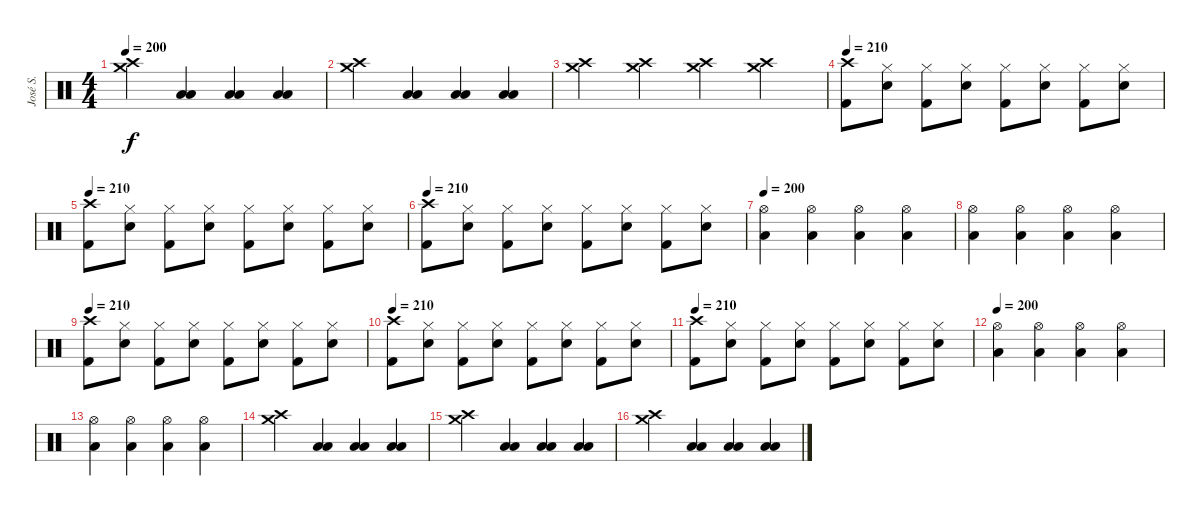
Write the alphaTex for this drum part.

\track ("José S." "José S.") {instrument percussion}
\staff {score}
\articulation defaults
\ts (4 4)
\tempo 200
\clef neutral
\ks c
("Crash high (hit)" "Crash medium (hit)").4{dy f} ("Low Tom (hit)" "Low Floor Tom (hit)").4 ("Low Tom (hit)" "Low Floor Tom (hit)").4 ("Low Tom (hit)" "Low Floor Tom (hit)").4 |
("Crash high (hit)" "Crash medium (hit)").4 ("Low Tom (hit)" "Low Floor Tom (hit)").4 ("Low Tom (hit)" "Low Floor Tom (hit)").4 ("Low Tom (hit)" "Low Floor Tom (hit)").4 |
("Crash medium (hit)" "Crash high (hit)").4 ("Crash medium (hit)" "Crash high (hit)").4 ("Crash medium (hit)" "Crash high (hit)").4 ("Crash medium (hit)" "Crash high (hit)").4 |
\tempo 210
("Crash high (hit)" "Kick (hit) 2").8 ("Hi-Hat (closed)" "Electric Snare (hit)").8 ("Hi-Hat (closed)" "Kick (hit) 2").8 ("Hi-Hat (closed)" "Electric Snare (hit)").8 ("Hi-Hat (closed)" "Kick (hit) 2").8 ("Hi-Hat (closed)" "Electric Snare (hit)").8 ("Hi-Hat (closed)" "Kick (hit) 2").8 ("Hi-Hat (closed)" "Electric Snare (hit)").8 |
\tempo 210
("Crash high (hit)" "Kick (hit) 2").8 ("Hi-Hat (closed)" "Electric Snare (hit)").8 ("Hi-Hat (closed)" "Kick (hit) 2").8 ("Hi-Hat (closed)" "Electric Snare (hit)").8 ("Hi-Hat (closed)" "Kick (hit) 2").8 ("Hi-Hat (closed)" "Electric Snare (hit)").8 ("Hi-Hat (closed)" "Kick (hit) 2").8 ("Hi-Hat (closed)" "Electric Snare (hit)").8 |
\tempo 210
("Crash high (hit)" "Kick (hit) 2").8 ("Hi-Hat (closed)" "Electric Snare (hit)").8 ("Hi-Hat (closed)" "Kick (hit) 2").8 ("Hi-Hat (closed)" "Electric Snare (hit)").8 ("Hi-Hat (closed)" "Kick (hit) 2").8 ("Hi-Hat (closed)" "Electric Snare (hit)").8 ("Hi-Hat (closed)" "Kick (hit) 2").8 ("Hi-Hat (closed)" "Electric Snare (hit)").8 |
\tempo 200
("Hi-Hat (open)" "Low Floor Tom (hit)").4 ("Hi-Hat (open)" "Low Floor Tom (hit)").4 ("Hi-Hat (open)" "Low Floor Tom (hit)").4 ("Hi-Hat (open)" "Low Floor Tom (hit)").4 |
("Hi-Hat (open)" "Low Floor Tom (hit)").4 ("Hi-Hat (open)" "Low Floor Tom (hit)").4 ("Hi-Hat (open)" "Low Floor Tom (hit)").4 ("Hi-Hat (open)" "Low Floor Tom (hit)").4 |
\tempo 210
("Crash high (hit)" "Kick (hit) 2").8 ("Hi-Hat (closed)" "Electric Snare (hit)").8 ("Hi-Hat (closed)" "Kick (hit) 2").8 ("Hi-Hat (closed)" "Electric Snare (hit)").8 ("Hi-Hat (closed)" "Kick (hit) 2").8 ("Hi-Hat (closed)" "Electric Snare (hit)").8 ("Hi-Hat (closed)" "Kick (hit) 2").8 ("Hi-Hat (closed)" "Electric Snare (hit)").8 |
\tempo 210
("Crash high (hit)" "Kick (hit) 2").8 ("Hi-Hat (closed)" "Electric Snare (hit)").8 ("Hi-Hat (closed)" "Kick (hit) 2").8 ("Hi-Hat (closed)" "Electric Snare (hit)").8 ("Hi-Hat (closed)" "Kick (hit) 2").8 ("Hi-Hat (closed)" "Electric Snare (hit)").8 ("Hi-Hat (closed)" "Kick (hit) 2").8 ("Hi-Hat (closed)" "Electric Snare (hit)").8 |
\tempo 210
("Crash high (hit)" "Kick (hit) 2").8 ("Hi-Hat (closed)" "Electric Snare (hit)").8 ("Hi-Hat (closed)" "Kick (hit) 2").8 ("Hi-Hat (closed)" "Electric Snare (hit)").8 ("Hi-Hat (closed)" "Kick (hit) 2").8 ("Hi-Hat (closed)" "Electric Snare (hit)").8 ("Hi-Hat (closed)" "Kick (hit) 2").8 ("Hi-Hat (closed)" "Electric Snare (hit)").8 |
\tempo 200
("Hi-Hat (open)" "Low Floor Tom (hit)").4 ("Hi-Hat (open)" "Low Floor Tom (hit)").4 ("Hi-Hat (open)" "Low Floor Tom (hit)").4 ("Hi-Hat (open)" "Low Floor Tom (hit)").4 |
("Hi-Hat (open)" "Low Floor Tom (hit)").4 ("Hi-Hat (open)" "Low Floor Tom (hit)").4 ("Hi-Hat (open)" "Low Floor Tom (hit)").4 ("Hi-Hat (open)" "Low Floor Tom (hit)").4 |
("Crash high (hit)" "Crash medium (hit)").4 ("Low Tom (hit)" "Low Floor Tom (hit)").4 ("Low Tom (hit)" "Low Floor Tom (hit)").4 ("Low Tom (hit)" "Low Floor Tom (hit)").4 |
("Crash high (hit)" "Crash medium (hit)").4 ("Low Tom (hit)" "Low Floor Tom (hit)").4 ("Low Tom (hit)" "Low Floor Tom (hit)").4 ("Low Tom (hit)" "Low Floor Tom (hit)").4 |
("Crash high (hit)" "Crash medium (hit)").4 ("Low Tom (hit)" "Low Floor Tom (hit)").4 ("Low Tom (hit)" "Low Floor Tom (hit)").4 ("Low Tom (hit)" "Low Floor Tom (hit)").4
